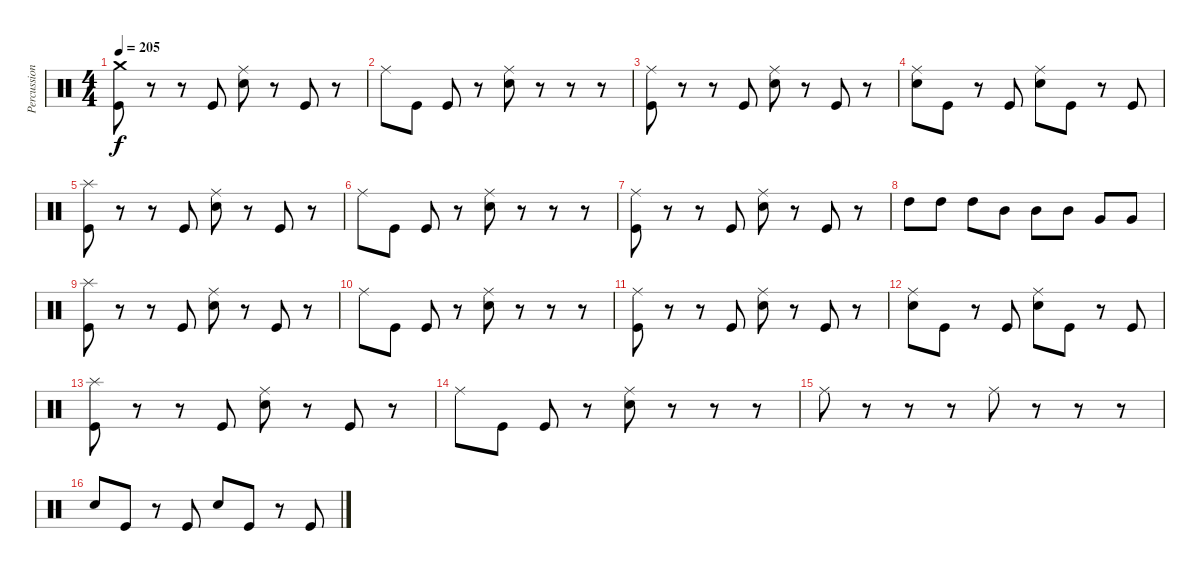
\track ("Percussion" "Percussion") {instrument percussion}
\staff {score}
\articulation defaults
\ts (4 4)
\tempo 205
\clef neutral
\ks c
("Kick (hit)" "Crash medium (hit)").8{dy f} r.8 r.8 "Kick (hit)".8 ("Snare (hit) 2" "Ride (middle)").8 r.8 "Kick (hit)".8 r.8 |
"Ride (middle)".8 "Kick (hit)".8 "Kick (hit)".8 r.8 ("Snare (hit) 2" "Ride (middle)").8 r.8 r.8 r.8 |
("Kick (hit)" "Ride (middle)").8 r.8 r.8 "Kick (hit)".8 ("Snare (hit) 2" "Ride (middle)").8 r.8 "Kick (hit)".8 r.8 |
("Snare (hit) 2" "Ride (middle)").8 "Kick (hit)".8 r.8 "Kick (hit)".8 ("Snare (hit) 2" "Ride (middle)").8 "Kick (hit)".8 r.8 "Kick (hit)".8 |
("Kick (hit)" "Splash (hit)").8 r.8 r.8 "Kick (hit)".8 ("Snare (hit) 2" "Ride (middle)").8 r.8 "Kick (hit)".8 r.8 |
"Ride (middle)".8 "Kick (hit)".8 "Kick (hit)".8 r.8 ("Snare (hit) 2" "Ride (middle)").8 r.8 r.8 r.8 |
("Kick (hit)" "Ride (middle)").8 r.8 r.8 "Kick (hit)".8 ("Snare (hit) 2" "Ride (middle)").8 r.8 "Kick (hit)".8 r.8 |
"High Tom (hit)".8 "High Tom (hit)".8 "High Tom (hit)".8 "Mid Tom (hit)".8 "Mid Tom (hit)".8 "Mid Tom (hit)".8 "Very Low Tom (hit)".8 "Very Low Tom (hit)".8 |
("Kick (hit)" "Splash (hit)").8 r.8 r.8 "Kick (hit)".8 ("Snare (hit) 2" "Ride (middle)").8 r.8 "Kick (hit)".8 r.8 |
"Ride (middle)".8 "Kick (hit)".8 "Kick (hit)".8 r.8 ("Snare (hit) 2" "Ride (middle)").8 r.8 r.8 r.8 |
("Kick (hit)" "Ride (middle)").8 r.8 r.8 "Kick (hit)".8 ("Snare (hit) 2" "Ride (middle)").8 r.8 "Kick (hit)".8 r.8 |
("Snare (hit) 2" "Ride (middle)").8 "Kick (hit)".8 r.8 "Kick (hit)".8 ("Snare (hit) 2" "Ride (middle)").8 "Kick (hit)".8 r.8 "Kick (hit)".8 |
("Kick (hit)" "Splash (hit)").8 r.8 r.8 "Kick (hit)".8 ("Snare (hit) 2" "Ride (middle)").8 r.8 "Kick (hit)".8 r.8 |
"Ride (middle)".8 "Kick (hit)".8 "Kick (hit)".8 r.8 ("Snare (hit) 2" "Ride (middle)").8 r.8 r.8 r.8 |
"Ride (middle)".8 r.8 r.8 r.8 "Ride (middle)".8 r.8 r.8 r.8 |
"Snare (hit) 2".8 "Kick (hit)".8 r.8 "Kick (hit)".8 "Snare (hit) 2".8 "Kick (hit)".8 r.8 "Kick (hit)".8
